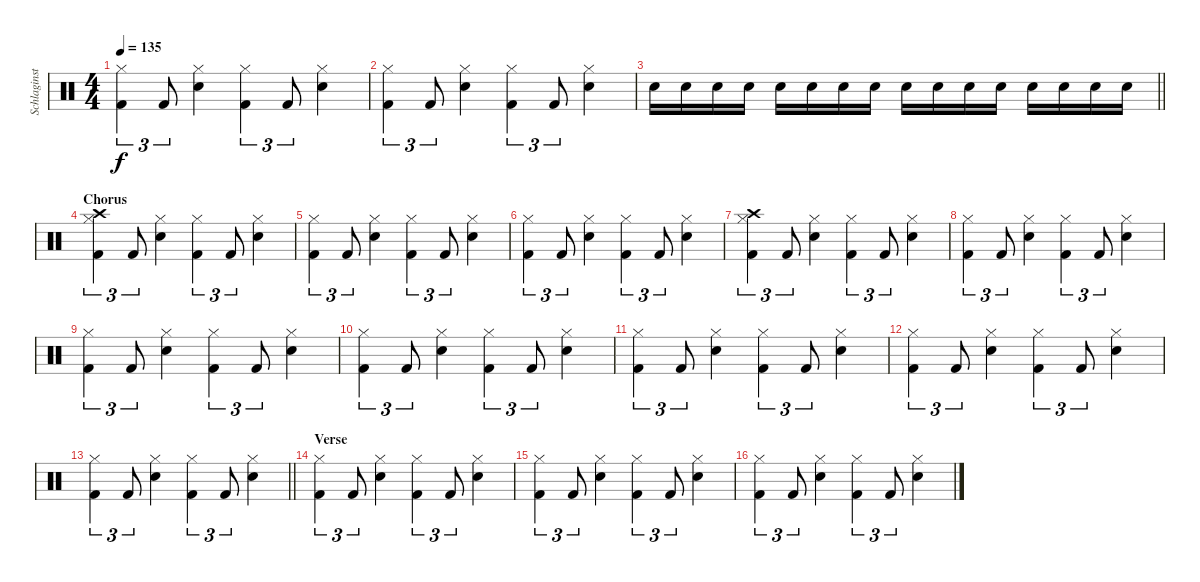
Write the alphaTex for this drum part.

\track ("Schlaginstrumente - Auswahl" "Schlaginst") {instrument percussion}
\staff {score}
\articulation defaults
\ts (4 4)
\tempo 135
\clef neutral
\ks c
("Hi-Hat (closed)" "Kick (hit) 2").4{tu (3 2) dy f} "Kick (hit) 2".8{tu (3 2)} ("Hi-Hat (closed)" "Electric Snare (hit)").4 ("Hi-Hat (closed)" "Kick (hit) 2").4{tu (3 2)} "Kick (hit) 2".8{tu (3 2)} ("Hi-Hat (closed)" "Electric Snare (hit)").4 |
("Hi-Hat (closed)" "Kick (hit) 2").4{tu (3 2)} "Kick (hit) 2".8{tu (3 2)} ("Hi-Hat (closed)" "Electric Snare (hit)").4 ("Hi-Hat (closed)" "Kick (hit) 2").4{tu (3 2)} "Kick (hit) 2".8{tu (3 2)} ("Hi-Hat (closed)" "Electric Snare (hit)").4 |
\barLineRight lightlight "Electric Snare (hit)".16 "Electric Snare (hit)".16 "Electric Snare (hit)".16 "Electric Snare (hit)".16 "Electric Snare (hit)".16 "Electric Snare (hit)".16 "Electric Snare (hit)".16 "Electric Snare (hit)".16 "Electric Snare (hit)".16 "Electric Snare (hit)".16 "Electric Snare (hit)".16 "Electric Snare (hit)".16 "Electric Snare (hit)".16 "Electric Snare (hit)".16 "Electric Snare (hit)".16 "Electric Snare (hit)".16
|
\section ("" "Chorus")
("Crash high (hit)" "Hi-Hat (closed)" "Kick (hit) 2").4{tu (3 2)} "Kick (hit) 2".8{tu (3 2)} ("Hi-Hat (closed)" "Electric Snare (hit)").4 ("Hi-Hat (closed)" "Kick (hit) 2").4{tu (3 2)} "Kick (hit) 2".8{tu (3 2)} ("Hi-Hat (closed)" "Electric Snare (hit)").4 |
("Hi-Hat (closed)" "Kick (hit) 2").4{tu (3 2)} "Kick (hit) 2".8{tu (3 2)} ("Hi-Hat (closed)" "Electric Snare (hit)").4 ("Hi-Hat (closed)" "Kick (hit) 2").4{tu (3 2)} "Kick (hit) 2".8{tu (3 2)} ("Hi-Hat (closed)" "Electric Snare (hit)").4 |
("Hi-Hat (closed)" "Kick (hit) 2").4{tu (3 2)} "Kick (hit) 2".8{tu (3 2)} ("Hi-Hat (closed)" "Electric Snare (hit)").4 ("Hi-Hat (closed)" "Kick (hit) 2").4{tu (3 2)} "Kick (hit) 2".8{tu (3 2)} ("Hi-Hat (closed)" "Electric Snare (hit)").4 |
("Crash high (hit)" "Hi-Hat (closed)" "Kick (hit) 2").4{tu (3 2)} "Kick (hit) 2".8{tu (3 2)} ("Hi-Hat (closed)" "Electric Snare (hit)").4 ("Hi-Hat (closed)" "Kick (hit) 2").4{tu (3 2)} "Kick (hit) 2".8{tu (3 2)} ("Hi-Hat (closed)" "Electric Snare (hit)").4 |
("Hi-Hat (closed)" "Kick (hit) 2").4{tu (3 2)} "Kick (hit) 2".8{tu (3 2)} ("Hi-Hat (closed)" "Electric Snare (hit)").4 ("Hi-Hat (closed)" "Kick (hit) 2").4{tu (3 2)} "Kick (hit) 2".8{tu (3 2)} ("Hi-Hat (closed)" "Electric Snare (hit)").4 |
("Hi-Hat (closed)" "Kick (hit) 2").4{tu (3 2)} "Kick (hit) 2".8{tu (3 2)} ("Hi-Hat (closed)" "Electric Snare (hit)").4 ("Hi-Hat (closed)" "Kick (hit) 2").4{tu (3 2)} "Kick (hit) 2".8{tu (3 2)} ("Hi-Hat (closed)" "Electric Snare (hit)").4 |
("Hi-Hat (closed)" "Kick (hit) 2").4{tu (3 2)} "Kick (hit) 2".8{tu (3 2)} ("Hi-Hat (closed)" "Electric Snare (hit)").4 ("Hi-Hat (closed)" "Kick (hit) 2").4{tu (3 2)} "Kick (hit) 2".8{tu (3 2)} ("Hi-Hat (closed)" "Electric Snare (hit)").4 |
("Hi-Hat (closed)" "Kick (hit) 2").4{tu (3 2)} "Kick (hit) 2".8{tu (3 2)} ("Hi-Hat (closed)" "Electric Snare (hit)").4 ("Hi-Hat (closed)" "Kick (hit) 2").4{tu (3 2)} "Kick (hit) 2".8{tu (3 2)} ("Hi-Hat (closed)" "Electric Snare (hit)").4 |
("Hi-Hat (closed)" "Kick (hit) 2").4{tu (3 2)} "Kick (hit) 2".8{tu (3 2)} ("Hi-Hat (closed)" "Electric Snare (hit)").4 ("Hi-Hat (closed)" "Kick (hit) 2").4{tu (3 2)} "Kick (hit) 2".8{tu (3 2)} ("Hi-Hat (closed)" "Electric Snare (hit)").4 |
\barLineRight lightlight
("Hi-Hat (closed)" "Kick (hit) 2").4{tu (3 2)} "Kick (hit) 2".8{tu (3 2)} ("Hi-Hat (closed)" "Electric Snare (hit)").4 ("Hi-Hat (closed)" "Kick (hit) 2").4{tu (3 2)} "Kick (hit) 2".8{tu (3 2)} ("Hi-Hat (closed)" "Electric Snare (hit)").4 |
\section ("" "Verse")
("Hi-Hat (closed)" "Kick (hit) 2").4{tu (3 2)} "Kick (hit) 2".8{tu (3 2)} ("Hi-Hat (closed)" "Electric Snare (hit)").4 ("Hi-Hat (closed)" "Kick (hit) 2").4{tu (3 2)} "Kick (hit) 2".8{tu (3 2)} ("Hi-Hat (closed)" "Electric Snare (hit)").4 |
("Hi-Hat (closed)" "Kick (hit) 2").4{tu (3 2)} "Kick (hit) 2".8{tu (3 2)} ("Hi-Hat (closed)" "Electric Snare (hit)").4 ("Hi-Hat (closed)" "Kick (hit) 2").4{tu (3 2)} "Kick (hit) 2".8{tu (3 2)} ("Hi-Hat (closed)" "Electric Snare (hit)").4 |
("Hi-Hat (closed)" "Kick (hit) 2").4{tu (3 2)} "Kick (hit) 2".8{tu (3 2)} ("Hi-Hat (closed)" "Electric Snare (hit)").4 ("Hi-Hat (closed)" "Kick (hit) 2").4{tu (3 2)} "Kick (hit) 2".8{tu (3 2)} ("Hi-Hat (closed)" "Electric Snare (hit)").4
